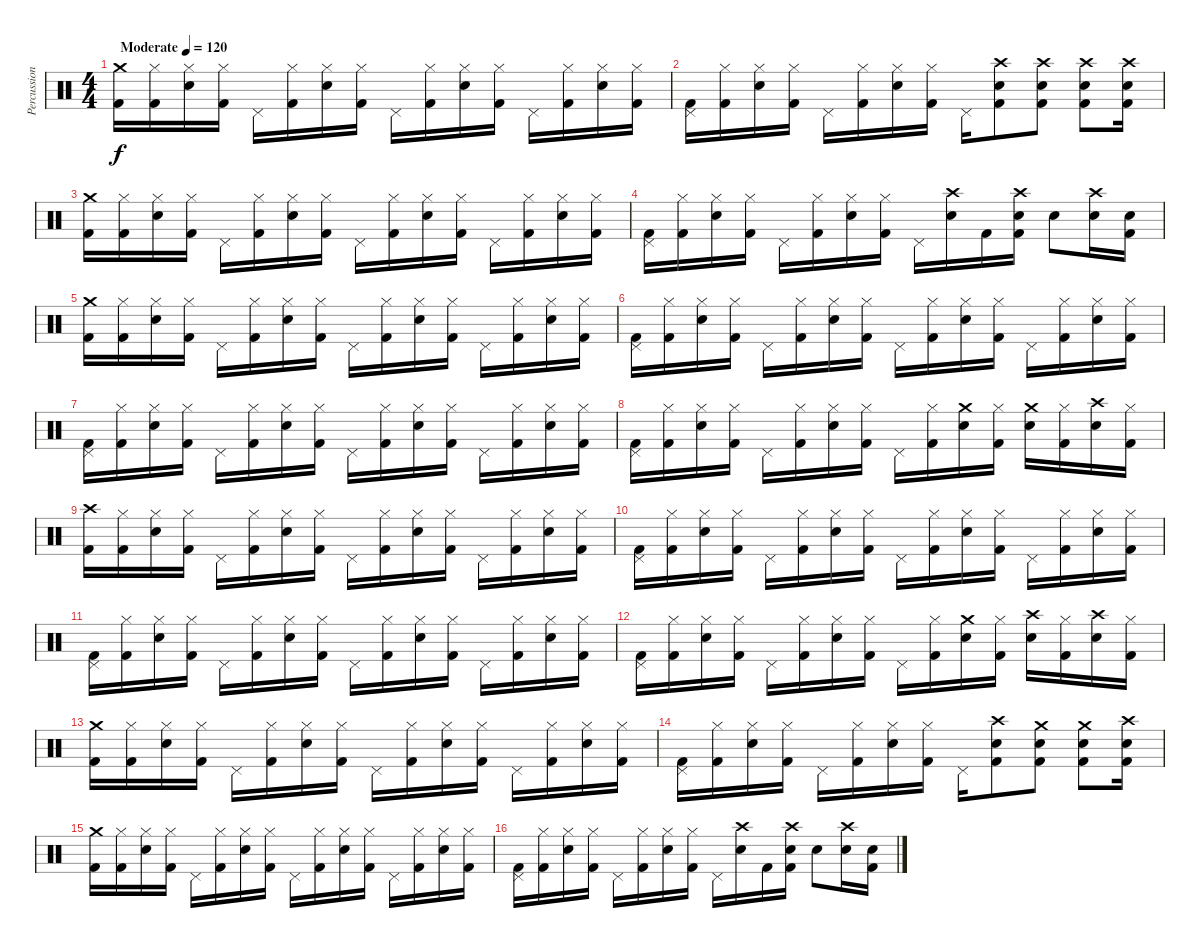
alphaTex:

\track ("Percussion" "Percussion") {instrument percussion}
\staff {score}
\articulation defaults
\ts (4 4)
\tempo (120 "Moderate")
\clef neutral
\ks c
("Crash medium (hit)" "Kick (hit) 2").16{dy f} ("Hi-Hat (closed)" "Kick (hit) 2").16 ("Hi-Hat (closed)" "Snare (hit) 2").16 ("Hi-Hat (closed)" "Kick (hit) 2").16 "Pedal Hi-Hat (hit)".16 ("Hi-Hat (closed)" "Kick (hit) 2").16 ("Hi-Hat (closed)" "Snare (hit) 2").16 ("Hi-Hat (closed)" "Kick (hit) 2").16 "Pedal Hi-Hat (hit)".16 ("Hi-Hat (closed)" "Kick (hit) 2").16 ("Hi-Hat (closed)" "Snare (hit) 2").16 ("Hi-Hat (closed)" "Kick (hit) 2").16 "Pedal Hi-Hat (hit)".16 ("Hi-Hat (closed)" "Kick (hit) 2").16 ("Hi-Hat (closed)" "Snare (hit) 2").16 ("Hi-Hat (closed)" "Kick (hit) 2").16 |
("Pedal Hi-Hat (hit)" "Kick (hit) 2").16 ("Hi-Hat (closed)" "Kick (hit) 2").16 ("Hi-Hat (closed)" "Snare (hit) 2").16 ("Hi-Hat (closed)" "Kick (hit) 2").16 "Pedal Hi-Hat (hit)".16 ("Hi-Hat (closed)" "Kick (hit) 2").16 ("Hi-Hat (closed)" "Snare (hit) 2").16 ("Hi-Hat (closed)" "Kick (hit) 2").16 "Pedal Hi-Hat (hit)".16 ("Crash high (hit)" "Snare (hit) 2" "Kick (hit) 2").8 ("Crash high (hit)" "Snare (hit) 2" "Kick (hit) 2").8 ("Crash high (hit)" "Snare (hit) 2" "Kick (hit) 2").8 ("Crash high (hit)" "Snare (hit) 2" "Kick (hit) 2").16 |
("Crash medium (hit)" "Kick (hit) 2").16 ("Hi-Hat (closed)" "Kick (hit) 2").16 ("Hi-Hat (closed)" "Snare (hit) 2").16 ("Hi-Hat (closed)" "Kick (hit) 2").16 "Pedal Hi-Hat (hit)".16 ("Hi-Hat (closed)" "Kick (hit) 2").16 ("Hi-Hat (closed)" "Snare (hit) 2").16 ("Hi-Hat (closed)" "Kick (hit) 2").16 "Pedal Hi-Hat (hit)".16 ("Hi-Hat (closed)" "Kick (hit) 2").16 ("Hi-Hat (closed)" "Snare (hit) 2").16 ("Hi-Hat (closed)" "Kick (hit) 2").16 "Pedal Hi-Hat (hit)".16 ("Hi-Hat (closed)" "Kick (hit) 2").16 ("Hi-Hat (closed)" "Snare (hit) 2").16 ("Hi-Hat (closed)" "Kick (hit) 2").16 |
("Pedal Hi-Hat (hit)" "Kick (hit) 2").16 ("Hi-Hat (closed)" "Kick (hit) 2").16 ("Hi-Hat (closed)" "Snare (hit) 2").16 ("Hi-Hat (closed)" "Kick (hit) 2").16 "Pedal Hi-Hat (hit)".16 ("Hi-Hat (closed)" "Kick (hit) 2").16 ("Hi-Hat (closed)" "Snare (hit) 2").16 ("Hi-Hat (closed)" "Kick (hit) 2").16 "Pedal Hi-Hat (hit)".16 ("Crash high (hit)" "Electric Snare (hit)").16 "Kick (hit) 2".16 ("Crash high (hit)" "Electric Snare (hit)" "Kick (hit) 2").16 "Electric Snare (hit)".8 ("Crash high (hit)" "Electric Snare (hit)").16 ("Electric Snare (hit)" "Kick (hit) 2").16 |
("Crash medium (hit)" "Kick (hit) 2").16 ("Hi-Hat (closed)" "Kick (hit) 2").16 ("Hi-Hat (closed)" "Snare (hit) 2").16 ("Hi-Hat (closed)" "Kick (hit) 2").16 "Pedal Hi-Hat (hit)".16 ("Hi-Hat (closed)" "Kick (hit) 2").16 ("Hi-Hat (closed)" "Snare (hit) 2").16 ("Hi-Hat (closed)" "Kick (hit) 2").16 "Pedal Hi-Hat (hit)".16 ("Hi-Hat (closed)" "Kick (hit) 2").16 ("Hi-Hat (closed)" "Snare (hit) 2").16 ("Hi-Hat (closed)" "Kick (hit) 2").16 "Pedal Hi-Hat (hit)".16 ("Hi-Hat (closed)" "Kick (hit) 2").16 ("Hi-Hat (closed)" "Snare (hit) 2").16 ("Hi-Hat (closed)" "Kick (hit) 2").16 |
("Pedal Hi-Hat (hit)" "Kick (hit) 2").16 ("Hi-Hat (closed)" "Kick (hit) 2").16 ("Hi-Hat (closed)" "Snare (hit) 2").16 ("Hi-Hat (closed)" "Kick (hit) 2").16 "Pedal Hi-Hat (hit)".16 ("Hi-Hat (closed)" "Kick (hit) 2").16 ("Hi-Hat (closed)" "Snare (hit) 2").16 ("Hi-Hat (closed)" "Kick (hit) 2").16 "Pedal Hi-Hat (hit)".16 ("Hi-Hat (closed)" "Kick (hit) 2").16 ("Hi-Hat (closed)" "Snare (hit) 2").16 ("Hi-Hat (closed)" "Kick (hit) 2").16 "Pedal Hi-Hat (hit)".16 ("Hi-Hat (closed)" "Kick (hit) 2").16 ("Hi-Hat (closed)" "Snare (hit) 2").16 ("Hi-Hat (closed)" "Kick (hit) 2").16 |
("Pedal Hi-Hat (hit)" "Kick (hit) 2").16 ("Hi-Hat (closed)" "Kick (hit) 2").16 ("Hi-Hat (closed)" "Snare (hit) 2").16 ("Hi-Hat (closed)" "Kick (hit) 2").16 "Pedal Hi-Hat (hit)".16 ("Hi-Hat (closed)" "Kick (hit) 2").16 ("Hi-Hat (closed)" "Snare (hit) 2").16 ("Hi-Hat (closed)" "Kick (hit) 2").16 "Pedal Hi-Hat (hit)".16 ("Hi-Hat (closed)" "Kick (hit) 2").16 ("Hi-Hat (closed)" "Snare (hit) 2").16 ("Hi-Hat (closed)" "Kick (hit) 2").16 "Pedal Hi-Hat (hit)".16 ("Hi-Hat (closed)" "Kick (hit) 2").16 ("Hi-Hat (closed)" "Snare (hit) 2").16 ("Hi-Hat (closed)" "Kick (hit) 2").16 |
("Pedal Hi-Hat (hit)" "Kick (hit) 2").16 ("Hi-Hat (closed)" "Kick (hit) 2").16 ("Hi-Hat (closed)" "Snare (hit) 2").16 ("Hi-Hat (closed)" "Kick (hit) 2").16 "Pedal Hi-Hat (hit)".16 ("Hi-Hat (closed)" "Kick (hit) 2").16 ("Hi-Hat (closed)" "Snare (hit) 2").16 ("Hi-Hat (closed)" "Kick (hit) 2").16 "Pedal Hi-Hat (hit)".16 ("Hi-Hat (closed)" "Kick (hit) 2").16 ("Crash medium (hit)" "Snare (hit) 2").16 ("Hi-Hat (closed)" "Kick (hit) 2").16 ("Crash medium (hit)" "Snare (hit) 2").16 ("Hi-Hat (closed)" "Kick (hit) 2").16 ("Crash high (hit)" "Snare (hit) 2").16 ("Hi-Hat (closed)" "Kick (hit) 2").16 |
("Crash high (hit)" "Kick (hit) 2").16 ("Hi-Hat (closed)" "Kick (hit) 2").16 ("Hi-Hat (closed)" "Snare (hit) 2").16 ("Hi-Hat (closed)" "Kick (hit) 2").16 "Pedal Hi-Hat (hit)".16 ("Hi-Hat (closed)" "Kick (hit) 2").16 ("Hi-Hat (closed)" "Snare (hit) 2").16 ("Hi-Hat (closed)" "Kick (hit) 2").16 "Pedal Hi-Hat (hit)".16 ("Hi-Hat (closed)" "Kick (hit) 2").16 ("Hi-Hat (closed)" "Snare (hit) 2").16 ("Hi-Hat (closed)" "Kick (hit) 2").16 "Pedal Hi-Hat (hit)".16 ("Hi-Hat (closed)" "Kick (hit) 2").16 ("Hi-Hat (closed)" "Snare (hit) 2").16 ("Hi-Hat (closed)" "Kick (hit) 2").16 |
("Pedal Hi-Hat (hit)" "Kick (hit) 2").16 ("Hi-Hat (closed)" "Kick (hit) 2").16 ("Hi-Hat (closed)" "Snare (hit) 2").16 ("Hi-Hat (closed)" "Kick (hit) 2").16 "Pedal Hi-Hat (hit)".16 ("Hi-Hat (closed)" "Kick (hit) 2").16 ("Hi-Hat (closed)" "Snare (hit) 2").16 ("Hi-Hat (closed)" "Kick (hit) 2").16 "Pedal Hi-Hat (hit)".16 ("Hi-Hat (closed)" "Kick (hit) 2").16 ("Hi-Hat (closed)" "Snare (hit) 2").16 ("Hi-Hat (closed)" "Kick (hit) 2").16 "Pedal Hi-Hat (hit)".16 ("Hi-Hat (closed)" "Kick (hit) 2").16 ("Hi-Hat (closed)" "Snare (hit) 2").16 ("Hi-Hat (closed)" "Kick (hit) 2").16 |
("Pedal Hi-Hat (hit)" "Kick (hit) 2").16 ("Hi-Hat (closed)" "Kick (hit) 2").16 ("Hi-Hat (closed)" "Snare (hit) 2").16 ("Hi-Hat (closed)" "Kick (hit) 2").16 "Pedal Hi-Hat (hit)".16 ("Hi-Hat (closed)" "Kick (hit) 2").16 ("Hi-Hat (closed)" "Snare (hit) 2").16 ("Hi-Hat (closed)" "Kick (hit) 2").16 "Pedal Hi-Hat (hit)".16 ("Hi-Hat (closed)" "Kick (hit) 2").16 ("Hi-Hat (closed)" "Snare (hit) 2").16 ("Hi-Hat (closed)" "Kick (hit) 2").16 "Pedal Hi-Hat (hit)".16 ("Hi-Hat (closed)" "Kick (hit) 2").16 ("Hi-Hat (closed)" "Snare (hit) 2").16 ("Hi-Hat (closed)" "Kick (hit) 2").16 |
("Pedal Hi-Hat (hit)" "Kick (hit) 2").16 ("Hi-Hat (closed)" "Kick (hit) 2").16 ("Hi-Hat (closed)" "Snare (hit) 2").16 ("Hi-Hat (closed)" "Kick (hit) 2").16 "Pedal Hi-Hat (hit)".16 ("Hi-Hat (closed)" "Kick (hit) 2").16 ("Hi-Hat (closed)" "Snare (hit) 2").16 ("Hi-Hat (closed)" "Kick (hit) 2").16 "Pedal Hi-Hat (hit)".16 ("Hi-Hat (closed)" "Kick (hit) 2").16 ("Crash medium (hit)" "Snare (hit) 2").16 ("Hi-Hat (closed)" "Kick (hit) 2").16 ("Crash high (hit)" "Snare (hit) 2").16 ("Hi-Hat (closed)" "Kick (hit) 2").16 ("Crash high (hit)" "Snare (hit) 2").16 ("Hi-Hat (closed)" "Kick (hit) 2").16 |
("Crash medium (hit)" "Kick (hit) 2").16 ("Hi-Hat (closed)" "Kick (hit) 2").16 ("Hi-Hat (closed)" "Snare (hit) 2").16 ("Hi-Hat (closed)" "Kick (hit) 2").16 "Pedal Hi-Hat (hit)".16 ("Hi-Hat (closed)" "Kick (hit) 2").16 ("Hi-Hat (closed)" "Snare (hit) 2").16 ("Hi-Hat (closed)" "Kick (hit) 2").16 "Pedal Hi-Hat (hit)".16 ("Hi-Hat (closed)" "Kick (hit) 2").16 ("Hi-Hat (closed)" "Snare (hit) 2").16 ("Hi-Hat (closed)" "Kick (hit) 2").16 "Pedal Hi-Hat (hit)".16 ("Hi-Hat (closed)" "Kick (hit) 2").16 ("Hi-Hat (closed)" "Snare (hit) 2").16 ("Hi-Hat (closed)" "Kick (hit) 2").16 |
("Pedal Hi-Hat (hit)" "Kick (hit) 2").16 ("Hi-Hat (closed)" "Kick (hit) 2").16 ("Hi-Hat (closed)" "Snare (hit) 2").16 ("Hi-Hat (closed)" "Kick (hit) 2").16 "Pedal Hi-Hat (hit)".16 ("Hi-Hat (closed)" "Kick (hit) 2").16 ("Hi-Hat (closed)" "Snare (hit) 2").16 ("Hi-Hat (closed)" "Kick (hit) 2").16 "Pedal Hi-Hat (hit)".16 ("Crash high (hit)" "Snare (hit) 2" "Kick (hit) 2").8 ("Crash medium (hit)" "Snare (hit) 2" "Kick (hit) 2").8 ("Crash medium (hit)" "Snare (hit) 2" "Kick (hit) 2").8 ("Crash high (hit)" "Snare (hit) 2" "Kick (hit) 2").16 |
("Crash medium (hit)" "Kick (hit) 2").16 ("Hi-Hat (closed)" "Kick (hit) 2").16 ("Hi-Hat (closed)" "Snare (hit) 2").16 ("Hi-Hat (closed)" "Kick (hit) 2").16 "Pedal Hi-Hat (hit)".16 ("Hi-Hat (closed)" "Kick (hit) 2").16 ("Hi-Hat (closed)" "Snare (hit) 2").16 ("Hi-Hat (closed)" "Kick (hit) 2").16 "Pedal Hi-Hat (hit)".16 ("Hi-Hat (closed)" "Kick (hit) 2").16 ("Hi-Hat (closed)" "Snare (hit) 2").16 ("Hi-Hat (closed)" "Kick (hit) 2").16 "Pedal Hi-Hat (hit)".16 ("Hi-Hat (closed)" "Kick (hit) 2").16 ("Hi-Hat (closed)" "Snare (hit) 2").16 ("Hi-Hat (closed)" "Kick (hit) 2").16 |
("Pedal Hi-Hat (hit)" "Kick (hit) 2").16 ("Hi-Hat (closed)" "Kick (hit) 2").16 ("Hi-Hat (closed)" "Snare (hit) 2").16 ("Hi-Hat (closed)" "Kick (hit) 2").16 "Pedal Hi-Hat (hit)".16 ("Hi-Hat (closed)" "Kick (hit) 2").16 ("Hi-Hat (closed)" "Snare (hit) 2").16 ("Hi-Hat (closed)" "Kick (hit) 2").16 "Pedal Hi-Hat (hit)".16 ("Crash high (hit)" "Electric Snare (hit)").16 "Kick (hit) 2".16 ("Crash high (hit)" "Electric Snare (hit)" "Kick (hit) 2").16 "Electric Snare (hit)".8 ("Crash high (hit)" "Electric Snare (hit)").16 ("Electric Snare (hit)" "Kick (hit) 2").16
